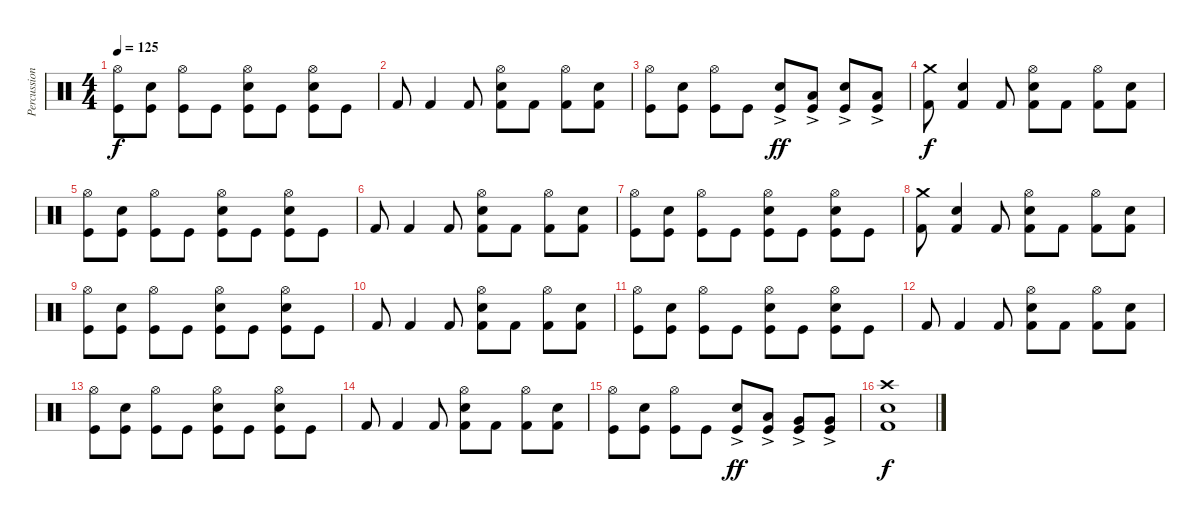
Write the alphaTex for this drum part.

\track ("Percussion" "Percussion") {instrument percussion}
\staff {score}
\articulation defaults
\ts (4 4)
\tempo 125
\clef neutral
\ks c
("Hi-Hat (open)" "Kick (hit)").8{dy f} ("Snare (hit) 2" "Kick (hit)").8 ("Hi-Hat (open)" "Kick (hit)").8 "Kick (hit)".8 ("Hi-Hat (open)" "Snare (hit) 2" "Kick (hit)").8 "Kick (hit)".8 ("Hi-Hat (open)" "Snare (hit) 2" "Kick (hit)").8 "Kick (hit)".8 |
"Kick (hit) 2".8 "Kick (hit) 2".4 "Kick (hit) 2".8 ("Hi-Hat (open)" "Snare (hit) 2" "Kick (hit) 2").8 "Kick (hit) 2".8 ("Hi-Hat (open)" "Kick (hit) 2").8 ("Snare (hit) 2" "Kick (hit) 2").8 |
("Hi-Hat (open)" "Kick (hit)").8 ("Snare (hit) 2" "Kick (hit)").8 ("Hi-Hat (open)" "Kick (hit)").8 "Kick (hit)".8 ("Snare (hit) 2"{ac} "Kick (hit)").8{dy ff} ("Low Floor Tom (hit)"{ac} "Kick (hit)").8 ("Snare (hit) 2"{ac} "Kick (hit)").8 ("Low Floor Tom (hit)"{ac} "Kick (hit)").8 |
("Crash medium (hit)" "Kick (hit) 2").8{dy f} ("Snare (hit) 2" "Kick (hit) 2").4 "Kick (hit) 2".8 ("Hi-Hat (open)" "Snare (hit) 2" "Kick (hit) 2").8 "Kick (hit) 2".8 ("Hi-Hat (open)" "Kick (hit) 2").8 ("Snare (hit) 2" "Kick (hit) 2").8 |
("Hi-Hat (open)" "Kick (hit)").8 ("Snare (hit) 2" "Kick (hit)").8 ("Hi-Hat (open)" "Kick (hit)").8 "Kick (hit)".8 ("Hi-Hat (open)" "Snare (hit) 2" "Kick (hit)").8 "Kick (hit)".8 ("Hi-Hat (open)" "Snare (hit) 2" "Kick (hit)").8 "Kick (hit)".8 |
"Kick (hit) 2".8 "Kick (hit) 2".4 "Kick (hit) 2".8 ("Hi-Hat (open)" "Snare (hit) 2" "Kick (hit) 2").8 "Kick (hit) 2".8 ("Hi-Hat (open)" "Kick (hit) 2").8 ("Snare (hit) 2" "Kick (hit) 2").8 |
("Hi-Hat (open)" "Kick (hit)").8 ("Snare (hit) 2" "Kick (hit)").8 ("Hi-Hat (open)" "Kick (hit)").8 "Kick (hit)".8 ("Hi-Hat (open)" "Snare (hit) 2" "Kick (hit)").8 "Kick (hit)".8 ("Hi-Hat (open)" "Snare (hit) 2" "Kick (hit)").8 "Kick (hit)".8 |
("Crash medium (hit)" "Kick (hit) 2").8 ("Snare (hit) 2" "Kick (hit) 2").4 "Kick (hit) 2".8 ("Hi-Hat (open)" "Snare (hit) 2" "Kick (hit) 2").8 "Kick (hit) 2".8 ("Hi-Hat (open)" "Kick (hit) 2").8 ("Snare (hit) 2" "Kick (hit) 2").8 |
("Hi-Hat (open)" "Kick (hit)").8 ("Snare (hit) 2" "Kick (hit)").8 ("Hi-Hat (open)" "Kick (hit)").8 "Kick (hit)".8 ("Hi-Hat (open)" "Snare (hit) 2" "Kick (hit)").8 "Kick (hit)".8 ("Hi-Hat (open)" "Snare (hit) 2" "Kick (hit)").8 "Kick (hit)".8 |
"Kick (hit) 2".8 "Kick (hit) 2".4 "Kick (hit) 2".8 ("Hi-Hat (open)" "Snare (hit) 2" "Kick (hit) 2").8 "Kick (hit) 2".8 ("Hi-Hat (open)" "Kick (hit) 2").8 ("Snare (hit) 2" "Kick (hit) 2").8 |
("Hi-Hat (open)" "Kick (hit)").8 ("Snare (hit) 2" "Kick (hit)").8 ("Hi-Hat (open)" "Kick (hit)").8 "Kick (hit)".8 ("Hi-Hat (open)" "Snare (hit) 2" "Kick (hit)").8 "Kick (hit)".8 ("Hi-Hat (open)" "Snare (hit) 2" "Kick (hit)").8 "Kick (hit)".8 |
"Kick (hit) 2".8 "Kick (hit) 2".4 "Kick (hit) 2".8 ("Hi-Hat (open)" "Snare (hit) 2" "Kick (hit) 2").8 "Kick (hit) 2".8 ("Hi-Hat (open)" "Kick (hit) 2").8 ("Snare (hit) 2" "Kick (hit) 2").8 |
("Hi-Hat (open)" "Kick (hit)").8 ("Snare (hit) 2" "Kick (hit)").8 ("Hi-Hat (open)" "Kick (hit)").8 "Kick (hit)".8 ("Hi-Hat (open)" "Snare (hit) 2" "Kick (hit)").8 "Kick (hit)".8 ("Hi-Hat (open)" "Snare (hit) 2" "Kick (hit)").8 "Kick (hit)".8 |
"Kick (hit) 2".8 "Kick (hit) 2".4 "Kick (hit) 2".8 ("Hi-Hat (open)" "Snare (hit) 2" "Kick (hit) 2").8 "Kick (hit) 2".8 ("Hi-Hat (open)" "Kick (hit) 2").8 ("Snare (hit) 2" "Kick (hit) 2").8 |
("Hi-Hat (open)" "Kick (hit)").8 ("Snare (hit) 2" "Kick (hit)").8 ("Hi-Hat (open)" "Kick (hit)").8 "Kick (hit)".8 ("Snare (hit) 2"{ac} "Kick (hit)").8{dy ff} ("Low Floor Tom (hit)"{ac} "Kick (hit)").8 ("Very Low Tom (hit)"{ac} "Kick (hit)").8 ("Very Low Tom (hit)"{ac} "Kick (hit)").8 |
("Crash high (hit)" "Snare (hit) 2" "Kick (hit) 2").1{dy f}
